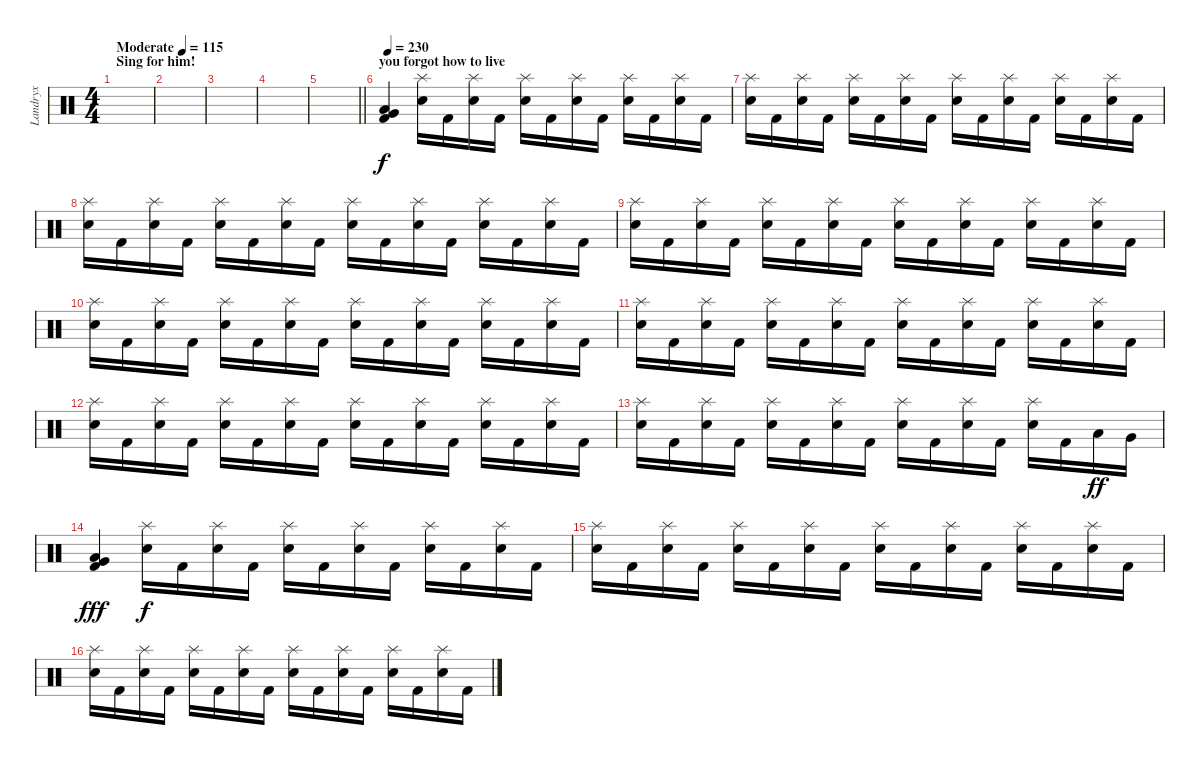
\track ("Landryx" "Landryx") {instrument percussion}
\staff {score}
\articulation defaults
\ts (4 4)
\section ("" "Sing for him!")
\tempo (115 "Moderate")
\clef neutral
\ks c
|
|
|
|
\barLineRight lightlight
|
\section ("" "you forgot how to live")
\tempo 230
("Very Low Tom (hit)" "Low Floor Tom (hit)" "Kick (hit) 2").4 ("Splash (hit)" "Electric Snare (hit)").16{dy f} "Kick (hit) 2".16 ("Splash (hit)" "Electric Snare (hit)").16 "Kick (hit) 2".16 ("Splash (hit)" "Electric Snare (hit)").16 "Kick (hit) 2".16 ("Splash (hit)" "Electric Snare (hit)").16 "Kick (hit) 2".16 ("Splash (hit)" "Electric Snare (hit)").16 "Kick (hit) 2".16 ("Splash (hit)" "Electric Snare (hit)").16 "Kick (hit) 2".16 |
("Splash (hit)" "Electric Snare (hit)").16 "Kick (hit) 2".16 ("Splash (hit)" "Electric Snare (hit)").16 "Kick (hit) 2".16 ("Splash (hit)" "Electric Snare (hit)").16 "Kick (hit) 2".16 ("Splash (hit)" "Electric Snare (hit)").16 "Kick (hit) 2".16 ("Splash (hit)" "Electric Snare (hit)").16 "Kick (hit) 2".16 ("Splash (hit)" "Electric Snare (hit)").16 "Kick (hit) 2".16 ("Splash (hit)" "Electric Snare (hit)").16 "Kick (hit) 2".16 ("Splash (hit)" "Electric Snare (hit)").16 "Kick (hit) 2".16 |
("Splash (hit)" "Electric Snare (hit)").16 "Kick (hit) 2".16 ("Splash (hit)" "Electric Snare (hit)").16 "Kick (hit) 2".16 ("Splash (hit)" "Electric Snare (hit)").16 "Kick (hit) 2".16 ("Splash (hit)" "Electric Snare (hit)").16 "Kick (hit) 2".16 ("Splash (hit)" "Electric Snare (hit)").16 "Kick (hit) 2".16 ("Splash (hit)" "Electric Snare (hit)").16 "Kick (hit) 2".16 ("Splash (hit)" "Electric Snare (hit)").16 "Kick (hit) 2".16 ("Splash (hit)" "Electric Snare (hit)").16 "Kick (hit) 2".16 |
("Splash (hit)" "Electric Snare (hit)").16 "Kick (hit) 2".16 ("Splash (hit)" "Electric Snare (hit)").16 "Kick (hit) 2".16 ("Splash (hit)" "Electric Snare (hit)").16 "Kick (hit) 2".16 ("Splash (hit)" "Electric Snare (hit)").16 "Kick (hit) 2".16 ("Splash (hit)" "Electric Snare (hit)").16 "Kick (hit) 2".16 ("Splash (hit)" "Electric Snare (hit)").16 "Kick (hit) 2".16 ("Splash (hit)" "Electric Snare (hit)").16 "Kick (hit) 2".16 ("Splash (hit)" "Electric Snare (hit)").16 "Kick (hit) 2".16 |
("Splash (hit)" "Electric Snare (hit)").16 "Kick (hit) 2".16 ("Splash (hit)" "Electric Snare (hit)").16 "Kick (hit) 2".16 ("Splash (hit)" "Electric Snare (hit)").16 "Kick (hit) 2".16 ("Splash (hit)" "Electric Snare (hit)").16 "Kick (hit) 2".16 ("Splash (hit)" "Electric Snare (hit)").16 "Kick (hit) 2".16 ("Splash (hit)" "Electric Snare (hit)").16 "Kick (hit) 2".16 ("Splash (hit)" "Electric Snare (hit)").16 "Kick (hit) 2".16 ("Splash (hit)" "Electric Snare (hit)").16 "Kick (hit) 2".16 |
("Splash (hit)" "Electric Snare (hit)").16 "Kick (hit) 2".16 ("Splash (hit)" "Electric Snare (hit)").16 "Kick (hit) 2".16 ("Splash (hit)" "Electric Snare (hit)").16 "Kick (hit) 2".16 ("Splash (hit)" "Electric Snare (hit)").16 "Kick (hit) 2".16 ("Splash (hit)" "Electric Snare (hit)").16 "Kick (hit) 2".16 ("Splash (hit)" "Electric Snare (hit)").16 "Kick (hit) 2".16 ("Splash (hit)" "Electric Snare (hit)").16 "Kick (hit) 2".16 ("Splash (hit)" "Electric Snare (hit)").16 "Kick (hit) 2".16 |
("Splash (hit)" "Electric Snare (hit)").16 "Kick (hit) 2".16 ("Splash (hit)" "Electric Snare (hit)").16 "Kick (hit) 2".16 ("Splash (hit)" "Electric Snare (hit)").16 "Kick (hit) 2".16 ("Splash (hit)" "Electric Snare (hit)").16 "Kick (hit) 2".16 ("Splash (hit)" "Electric Snare (hit)").16 "Kick (hit) 2".16 ("Splash (hit)" "Electric Snare (hit)").16 "Kick (hit) 2".16 ("Splash (hit)" "Electric Snare (hit)").16 "Kick (hit) 2".16 ("Splash (hit)" "Electric Snare (hit)").16 "Kick (hit) 2".16 |
("Splash (hit)" "Electric Snare (hit)").16 "Kick (hit) 2".16 ("Splash (hit)" "Electric Snare (hit)").16 "Kick (hit) 2".16 ("Splash (hit)" "Electric Snare (hit)").16 "Kick (hit) 2".16 ("Splash (hit)" "Electric Snare (hit)").16 "Kick (hit) 2".16 ("Splash (hit)" "Electric Snare (hit)").16 "Kick (hit) 2".16 ("Splash (hit)" "Electric Snare (hit)").16 "Kick (hit) 2".16 ("Splash (hit)" "Electric Snare (hit)").16 "Kick (hit) 2".16 "Low Tom (hit)".16{dy ff} "Very Low Tom (hit)".16 |
("Very Low Tom (hit)" "Low Floor Tom (hit)" "Kick (hit) 2").4{dy fff} ("Splash (hit)" "Electric Snare (hit)").16{dy f} "Kick (hit) 2".16 ("Splash (hit)" "Electric Snare (hit)").16 "Kick (hit) 2".16 ("Splash (hit)" "Electric Snare (hit)").16 "Kick (hit) 2".16 ("Splash (hit)" "Electric Snare (hit)").16 "Kick (hit) 2".16 ("Splash (hit)" "Electric Snare (hit)").16 "Kick (hit) 2".16 ("Splash (hit)" "Electric Snare (hit)").16 "Kick (hit) 2".16 |
("Splash (hit)" "Electric Snare (hit)").16 "Kick (hit) 2".16 ("Splash (hit)" "Electric Snare (hit)").16 "Kick (hit) 2".16 ("Splash (hit)" "Electric Snare (hit)").16 "Kick (hit) 2".16 ("Splash (hit)" "Electric Snare (hit)").16 "Kick (hit) 2".16 ("Splash (hit)" "Electric Snare (hit)").16 "Kick (hit) 2".16 ("Splash (hit)" "Electric Snare (hit)").16 "Kick (hit) 2".16 ("Splash (hit)" "Electric Snare (hit)").16 "Kick (hit) 2".16 ("Splash (hit)" "Electric Snare (hit)").16 "Kick (hit) 2".16 |
("Splash (hit)" "Electric Snare (hit)").16 "Kick (hit) 2".16 ("Splash (hit)" "Electric Snare (hit)").16 "Kick (hit) 2".16 ("Splash (hit)" "Electric Snare (hit)").16 "Kick (hit) 2".16 ("Splash (hit)" "Electric Snare (hit)").16 "Kick (hit) 2".16 ("Splash (hit)" "Electric Snare (hit)").16 "Kick (hit) 2".16 ("Splash (hit)" "Electric Snare (hit)").16 "Kick (hit) 2".16 ("Splash (hit)" "Electric Snare (hit)").16 "Kick (hit) 2".16 ("Splash (hit)" "Electric Snare (hit)").16 "Kick (hit) 2".16
